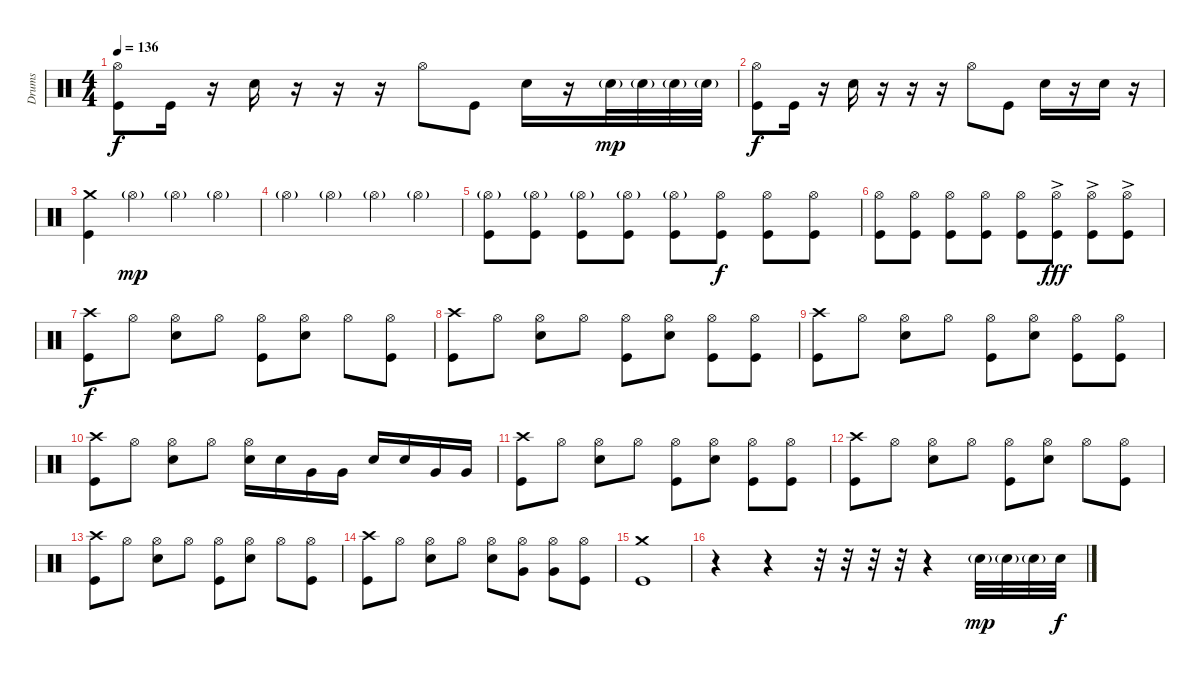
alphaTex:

\track ("Drums" "Drums") {instrument percussion}
\staff {score}
\articulation defaults
\ts (4 4)
\tempo 136
\clef neutral
\ks c
("Hi-Hat (open)" "Kick (hit)").8{dy f} "Kick (hit)".16 r.16 "Electric Snare (hit)".16 r.16 r.16 r.16 "Hi-Hat (open)".8 "Kick (hit)".8 "Electric Snare (hit)".16 r.16 "Electric Snare (hit)"{g}.32{dy mp} "Electric Snare (hit)"{g}.32 "Electric Snare (hit)"{g}.32 "Electric Snare (hit)"{g}.32 |
("Hi-Hat (open)" "Kick (hit)").8{dy f} "Kick (hit)".16 r.16 "Electric Snare (hit)".16 r.16 r.16 r.16 "Hi-Hat (open)".8 "Kick (hit)".8 "Electric Snare (hit)".16 r.16 "Electric Snare (hit)".16 r.16 |
("Crash medium (hit)" "Kick (hit)").4 "Hi-Hat (open)"{g}.4{dy mp} "Hi-Hat (open)"{g}.4 "Hi-Hat (open)"{g}.4 |
"Hi-Hat (open)"{g}.4 "Hi-Hat (open)"{g}.4 "Hi-Hat (open)"{g}.4 "Hi-Hat (open)"{g}.4 |
("Hi-Hat (open)"{g} "Kick (hit)").8 ("Hi-Hat (open)"{g} "Kick (hit)").8 ("Hi-Hat (open)"{g} "Kick (hit)").8 ("Hi-Hat (open)"{g} "Kick (hit)").8 ("Hi-Hat (open)"{g} "Kick (hit)").8 ("Hi-Hat (open)" "Kick (hit)").8{dy f} ("Hi-Hat (open)" "Kick (hit)").8 ("Hi-Hat (open)" "Kick (hit)").8 |
("Hi-Hat (open)" "Kick (hit)").8 ("Hi-Hat (open)" "Kick (hit)").8 ("Hi-Hat (open)" "Kick (hit)").8 ("Hi-Hat (open)" "Kick (hit)").8 ("Hi-Hat (open)" "Kick (hit)").8 ("Hi-Hat (open)"{ac} "Kick (hit)").8{dy fff} ("Hi-Hat (open)"{ac} "Kick (hit)").8 ("Hi-Hat (open)"{ac} "Kick (hit)").8 |
("Crash high (hit)" "Kick (hit)").8{dy f} "Hi-Hat (open)".8 ("Hi-Hat (open)" "Electric Snare (hit)").8 "Hi-Hat (open)".8 ("Hi-Hat (open)" "Kick (hit)").8 ("Hi-Hat (open)" "Electric Snare (hit)").8 "Hi-Hat (open)".8 ("Hi-Hat (open)" "Kick (hit)").8 |
("Crash high (hit)" "Kick (hit)").8 "Hi-Hat (open)".8 ("Hi-Hat (open)" "Electric Snare (hit)").8 "Hi-Hat (open)".8 ("Hi-Hat (open)" "Kick (hit)").8 ("Hi-Hat (open)" "Electric Snare (hit)").8 ("Hi-Hat (open)" "Kick (hit)").8 ("Hi-Hat (open)" "Kick (hit)").8 |
("Crash high (hit)" "Kick (hit)").8 "Hi-Hat (open)".8 ("Hi-Hat (open)" "Electric Snare (hit)").8 "Hi-Hat (open)".8 ("Hi-Hat (open)" "Kick (hit)").8 ("Hi-Hat (open)" "Electric Snare (hit)").8 ("Hi-Hat (open)" "Kick (hit)").8 ("Hi-Hat (open)" "Kick (hit)").8 |
("Crash high (hit)" "Kick (hit)").8 "Hi-Hat (open)".8 ("Hi-Hat (open)" "Electric Snare (hit)").8 "Hi-Hat (open)".8 ("Hi-Hat (open)" "Electric Snare (hit)").16 "Electric Snare (hit)".16 "Very Low Tom (hit)".16 "Very Low Tom (hit)".16 "Electric Snare (hit)".16 "Electric Snare (hit)".16 "Very Low Tom (hit)".16 "Very Low Tom (hit)".16 |
("Crash high (hit)" "Kick (hit)").8 "Hi-Hat (open)".8 ("Hi-Hat (open)" "Electric Snare (hit)").8 "Hi-Hat (open)".8 ("Hi-Hat (open)" "Kick (hit)").8 ("Hi-Hat (open)" "Electric Snare (hit)").8 ("Hi-Hat (open)" "Kick (hit)").8 ("Hi-Hat (open)" "Kick (hit)").8 |
("Crash high (hit)" "Kick (hit)").8 "Hi-Hat (open)".8 ("Hi-Hat (open)" "Electric Snare (hit)").8 "Hi-Hat (open)".8 ("Hi-Hat (open)" "Kick (hit)").8 ("Hi-Hat (open)" "Electric Snare (hit)").8 "Hi-Hat (open)".8 ("Hi-Hat (open)" "Kick (hit)").8 |
("Crash high (hit)" "Kick (hit)").8 "Hi-Hat (open)".8 ("Hi-Hat (open)" "Electric Snare (hit)").8 "Hi-Hat (open)".8 ("Hi-Hat (open)" "Kick (hit)").8 ("Hi-Hat (open)" "Electric Snare (hit)").8 "Hi-Hat (open)".8 ("Hi-Hat (open)" "Kick (hit)").8 |
("Crash high (hit)" "Kick (hit)").8 "Hi-Hat (open)".8 ("Hi-Hat (open)" "Electric Snare (hit)").8 "Hi-Hat (open)".8 ("Hi-Hat (open)" "Electric Snare (hit)").8 ("Hi-Hat (open)" "Very Low Tom (hit)").8 ("Hi-Hat (open)" "Very Low Tom (hit)").8 ("Hi-Hat (open)" "Kick (hit)").8 |
("Kick (hit)" "Crash medium (hit)").1 |
r.4 r.4 r.32 r.32 r.32 r.32 r.4 "Electric Snare (hit)"{g}.32{dy mp} "Electric Snare (hit)"{g}.32 "Electric Snare (hit)"{g}.32 "Electric Snare (hit)".32{dy f}
